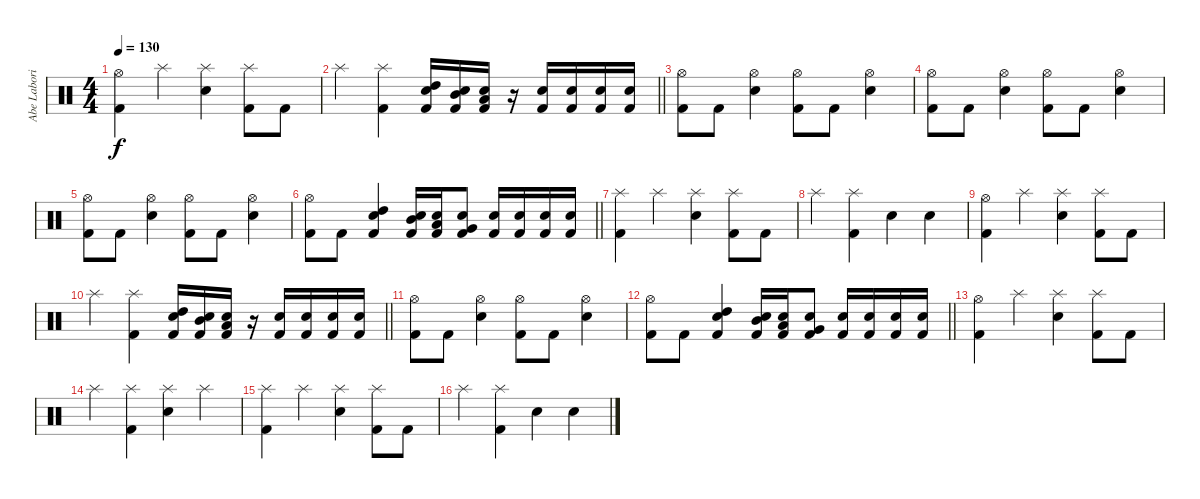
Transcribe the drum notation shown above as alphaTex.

\track ("Abe Laboriel, Jr." "Abe Labori") {instrument percussion}
\staff {score}
\articulation defaults
\ts (4 4)
\tempo 130
\clef neutral
\ks c
("Hi-Hat (open)" "Kick (hit) 2").4{dy f} "Splash (hit)".4 ("Splash (hit)" "Snare (hit) 2").4 ("Splash (hit)" "Kick (hit) 2").8 "Kick (hit) 2".8 |
\barLineRight lightlight "Splash (hit)".4
("Splash (hit)" "Kick (hit) 2").4 ("Kick (hit) 2" "Snare (hit) 2" "High Tom (hit)").16 ("Kick (hit) 2" "Snare (hit) 2" "Mid Tom (hit)").16 ("Kick (hit) 2" "Snare (hit) 2" "Low Tom (hit)").16 r.16 ("Kick (hit) 2" "Snare (hit) 2").16 ("Kick (hit) 2" "Snare (hit) 2").16 ("Kick (hit) 2" "Snare (hit) 2").16 ("Kick (hit) 2" "Snare (hit) 2").16 |
("Hi-Hat (open)" "Kick (hit) 2").8 "Kick (hit) 2".8 ("Hi-Hat (open)" "Snare (hit) 2").4 ("Hi-Hat (open)" "Kick (hit) 2").8 "Kick (hit) 2".8 ("Hi-Hat (open)" "Snare (hit) 2").4 |
("Hi-Hat (open)" "Kick (hit) 2").8 "Kick (hit) 2".8 ("Hi-Hat (open)" "Snare (hit) 2").4 ("Hi-Hat (open)" "Kick (hit) 2").8 "Kick (hit) 2".8 ("Hi-Hat (open)" "Snare (hit) 2").4 |
("Hi-Hat (open)" "Kick (hit) 2").8 "Kick (hit) 2".8 ("Hi-Hat (open)" "Snare (hit) 2").4 ("Hi-Hat (open)" "Kick (hit) 2").8 "Kick (hit) 2".8 ("Hi-Hat (open)" "Snare (hit) 2").4 |
\barLineRight lightlight
("Hi-Hat (open)" "Kick (hit) 2").8 "Kick (hit) 2".8 ("Kick (hit) 2" "Snare (hit) 2" "High Tom (hit)").4 ("Kick (hit) 2" "Snare (hit) 2" "Mid Tom (hit)").16 ("Kick (hit) 2" "Snare (hit) 2" "Low Tom (hit)").16 ("Kick (hit) 2" "Snare (hit) 2" "Very Low Tom (hit)").8 ("Kick (hit) 2" "Snare (hit) 2").16 ("Kick (hit) 2" "Snare (hit) 2").16 ("Kick (hit) 2" "Snare (hit) 2").16 ("Kick (hit) 2" "Snare (hit) 2").16 |
("Splash (hit)" "Kick (hit) 2").4 "Splash (hit)".4 ("Splash (hit)" "Snare (hit) 2").4 ("Splash (hit)" "Kick (hit) 2").8 "Kick (hit) 2".8 |
"Splash (hit)".4 ("Splash (hit)" "Kick (hit) 2").4 "Snare (hit) 2".4 "Snare (hit) 2".4 |
("Hi-Hat (open)" "Kick (hit) 2").4 "Splash (hit)".4 ("Splash (hit)" "Snare (hit) 2").4 ("Splash (hit)" "Kick (hit) 2").8 "Kick (hit) 2".8 |
\barLineRight lightlight "Splash (hit)".4
("Splash (hit)" "Kick (hit) 2").4 ("Kick (hit) 2" "Snare (hit) 2" "High Tom (hit)").16 ("Kick (hit) 2" "Snare (hit) 2" "Mid Tom (hit)").16 ("Kick (hit) 2" "Snare (hit) 2" "Low Tom (hit)").16 r.16 ("Kick (hit) 2" "Snare (hit) 2").16 ("Kick (hit) 2" "Snare (hit) 2").16 ("Kick (hit) 2" "Snare (hit) 2").16 ("Kick (hit) 2" "Snare (hit) 2").16 |
("Hi-Hat (open)" "Kick (hit) 2").8 "Kick (hit) 2".8 ("Hi-Hat (open)" "Snare (hit) 2").4 ("Hi-Hat (open)" "Kick (hit) 2").8 "Kick (hit) 2".8 ("Hi-Hat (open)" "Snare (hit) 2").4 |
\barLineRight lightlight
("Hi-Hat (open)" "Kick (hit) 2").8 "Kick (hit) 2".8 ("Kick (hit) 2" "Snare (hit) 2" "High Tom (hit)").4 ("Kick (hit) 2" "Snare (hit) 2" "Mid Tom (hit)").16 ("Kick (hit) 2" "Snare (hit) 2" "Low Tom (hit)").16 ("Kick (hit) 2" "Snare (hit) 2" "Very Low Tom (hit)").8 ("Kick (hit) 2" "Snare (hit) 2").16 ("Kick (hit) 2" "Snare (hit) 2").16 ("Kick (hit) 2" "Snare (hit) 2").16 ("Kick (hit) 2" "Snare (hit) 2").16 |
("Hi-Hat (open)" "Kick (hit) 2").4 "Splash (hit)".4 ("Splash (hit)" "Snare (hit) 2").4 ("Splash (hit)" "Kick (hit) 2").8 "Kick (hit) 2".8 |
"Splash (hit)".4 ("Splash (hit)" "Kick (hit) 2").4 ("Splash (hit)" "Snare (hit) 2").4 "Splash (hit)".4 |
("Splash (hit)" "Kick (hit) 2").4 "Splash (hit)".4 ("Splash (hit)" "Snare (hit) 2").4 ("Splash (hit)" "Kick (hit) 2").8 "Kick (hit) 2".8 |
"Splash (hit)".4 ("Splash (hit)" "Kick (hit) 2").4 "Snare (hit) 2".4 "Snare (hit) 2".4
